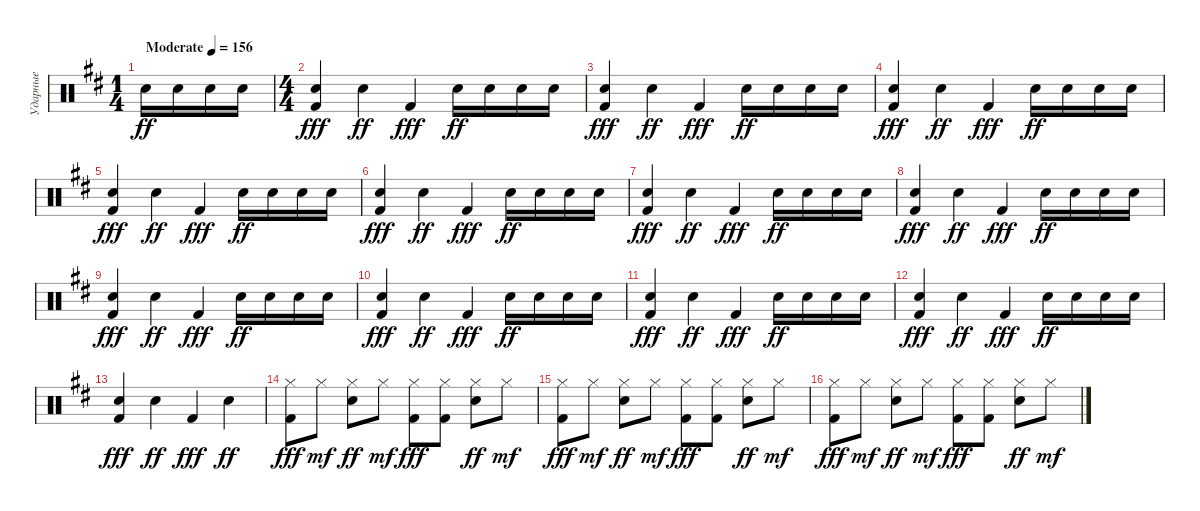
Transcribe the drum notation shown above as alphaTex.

\track ("Ударные" "Ударные") {instrument percussion}
\staff {score}
\articulation defaults
\ts (1 4)
\tempo (156 "Moderate")
\clef neutral
\ks bminor "Electric Snare (hit)".16{dy ff} "Electric Snare (hit)".16 "Electric Snare (hit)".16 "Electric Snare (hit)".16
|
\ts (4 4)
("Electric Snare (hit)" "Kick (hit) 2").4{dy fff} "Electric Snare (hit)".4{dy ff} "Kick (hit) 2".4{dy fff} "Electric Snare (hit)".16{dy ff} "Electric Snare (hit)".16 "Electric Snare (hit)".16 "Electric Snare (hit)".16 |
("Electric Snare (hit)" "Kick (hit) 2").4{dy fff} "Electric Snare (hit)".4{dy ff} "Kick (hit) 2".4{dy fff} "Electric Snare (hit)".16{dy ff} "Electric Snare (hit)".16 "Electric Snare (hit)".16 "Electric Snare (hit)".16 |
("Electric Snare (hit)" "Kick (hit) 2").4{dy fff} "Electric Snare (hit)".4{dy ff} "Kick (hit) 2".4{dy fff} "Electric Snare (hit)".16{dy ff} "Electric Snare (hit)".16 "Electric Snare (hit)".16 "Electric Snare (hit)".16 |
("Electric Snare (hit)" "Kick (hit) 2").4{dy fff} "Electric Snare (hit)".4{dy ff} "Kick (hit) 2".4{dy fff} "Electric Snare (hit)".16{dy ff} "Electric Snare (hit)".16 "Electric Snare (hit)".16 "Electric Snare (hit)".16 |
("Electric Snare (hit)" "Kick (hit) 2").4{dy fff} "Electric Snare (hit)".4{dy ff} "Kick (hit) 2".4{dy fff} "Electric Snare (hit)".16{dy ff} "Electric Snare (hit)".16 "Electric Snare (hit)".16 "Electric Snare (hit)".16 |
("Electric Snare (hit)" "Kick (hit) 2").4{dy fff} "Electric Snare (hit)".4{dy ff} "Kick (hit) 2".4{dy fff} "Electric Snare (hit)".16{dy ff} "Electric Snare (hit)".16 "Electric Snare (hit)".16 "Electric Snare (hit)".16 |
("Electric Snare (hit)" "Kick (hit) 2").4{dy fff} "Electric Snare (hit)".4{dy ff} "Kick (hit) 2".4{dy fff} "Electric Snare (hit)".16{dy ff} "Electric Snare (hit)".16 "Electric Snare (hit)".16 "Electric Snare (hit)".16 |
("Electric Snare (hit)" "Kick (hit) 2").4{dy fff} "Electric Snare (hit)".4{dy ff} "Kick (hit) 2".4{dy fff} "Electric Snare (hit)".16{dy ff} "Electric Snare (hit)".16 "Electric Snare (hit)".16 "Electric Snare (hit)".16 |
("Electric Snare (hit)" "Kick (hit) 2").4{dy fff} "Electric Snare (hit)".4{dy ff} "Kick (hit) 2".4{dy fff} "Electric Snare (hit)".16{dy ff} "Electric Snare (hit)".16 "Electric Snare (hit)".16 "Electric Snare (hit)".16 |
("Electric Snare (hit)" "Kick (hit) 2").4{dy fff} "Electric Snare (hit)".4{dy ff} "Kick (hit) 2".4{dy fff} "Electric Snare (hit)".16{dy ff} "Electric Snare (hit)".16 "Electric Snare (hit)".16 "Electric Snare (hit)".16 |
("Electric Snare (hit)" "Kick (hit) 2").4{dy fff} "Electric Snare (hit)".4{dy ff} "Kick (hit) 2".4{dy fff} "Electric Snare (hit)".16{dy ff} "Electric Snare (hit)".16 "Electric Snare (hit)".16 "Electric Snare (hit)".16 |
("Electric Snare (hit)" "Kick (hit) 2").4{dy fff} "Electric Snare (hit)".4{dy ff} "Kick (hit) 2".4{dy fff} "Electric Snare (hit)".4{dy ff} |
("Hi-Hat (closed)" "Kick (hit) 2").8{dy fff} "Hi-Hat (closed)".8{dy mf} ("Hi-Hat (closed)" "Electric Snare (hit)").8{dy ff} "Hi-Hat (closed)".8{dy mf} ("Hi-Hat (closed)" "Kick (hit) 2").8{dy fff} ("Hi-Hat (closed)" "Kick (hit) 2").8 ("Hi-Hat (closed)" "Electric Snare (hit)").8{dy ff} "Hi-Hat (closed)".8{dy mf} |
("Hi-Hat (closed)" "Kick (hit) 2").8{dy fff} "Hi-Hat (closed)".8{dy mf} ("Hi-Hat (closed)" "Electric Snare (hit)").8{dy ff} "Hi-Hat (closed)".8{dy mf} ("Hi-Hat (closed)" "Kick (hit) 2").8{dy fff} ("Hi-Hat (closed)" "Kick (hit) 2").8 ("Hi-Hat (closed)" "Electric Snare (hit)").8{dy ff} "Hi-Hat (closed)".8{dy mf} |
("Hi-Hat (closed)" "Kick (hit) 2").8{dy fff} "Hi-Hat (closed)".8{dy mf} ("Hi-Hat (closed)" "Electric Snare (hit)").8{dy ff} "Hi-Hat (closed)".8{dy mf} ("Hi-Hat (closed)" "Kick (hit) 2").8{dy fff} ("Hi-Hat (closed)" "Kick (hit) 2").8 ("Hi-Hat (closed)" "Electric Snare (hit)").8{dy ff} "Hi-Hat (closed)".8{dy mf}
